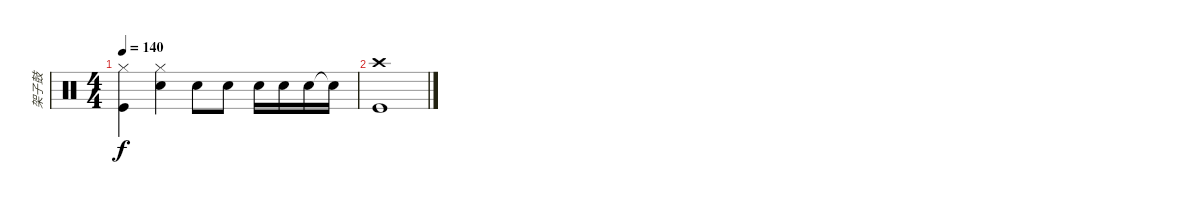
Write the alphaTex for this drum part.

\track ("架子鼓" "架子鼓") {instrument percussion}
\staff {score}
\articulation defaults
\ts (4 4)
\tempo 140
\clef neutral
\ks c
("Hi-Hat (closed)" "Kick (hit)").4{dy f} ("Hi-Hat (closed)" "Electric Snare (hit)").4 "Electric Snare (hit)".8 "Electric Snare (hit)".8 "Electric Snare (hit)".16 "Electric Snare (hit)".16 "Electric Snare (hit)".16 "Snare (hit)"{t}.16 |
("Crash high (hit)" "Kick (hit)").1
